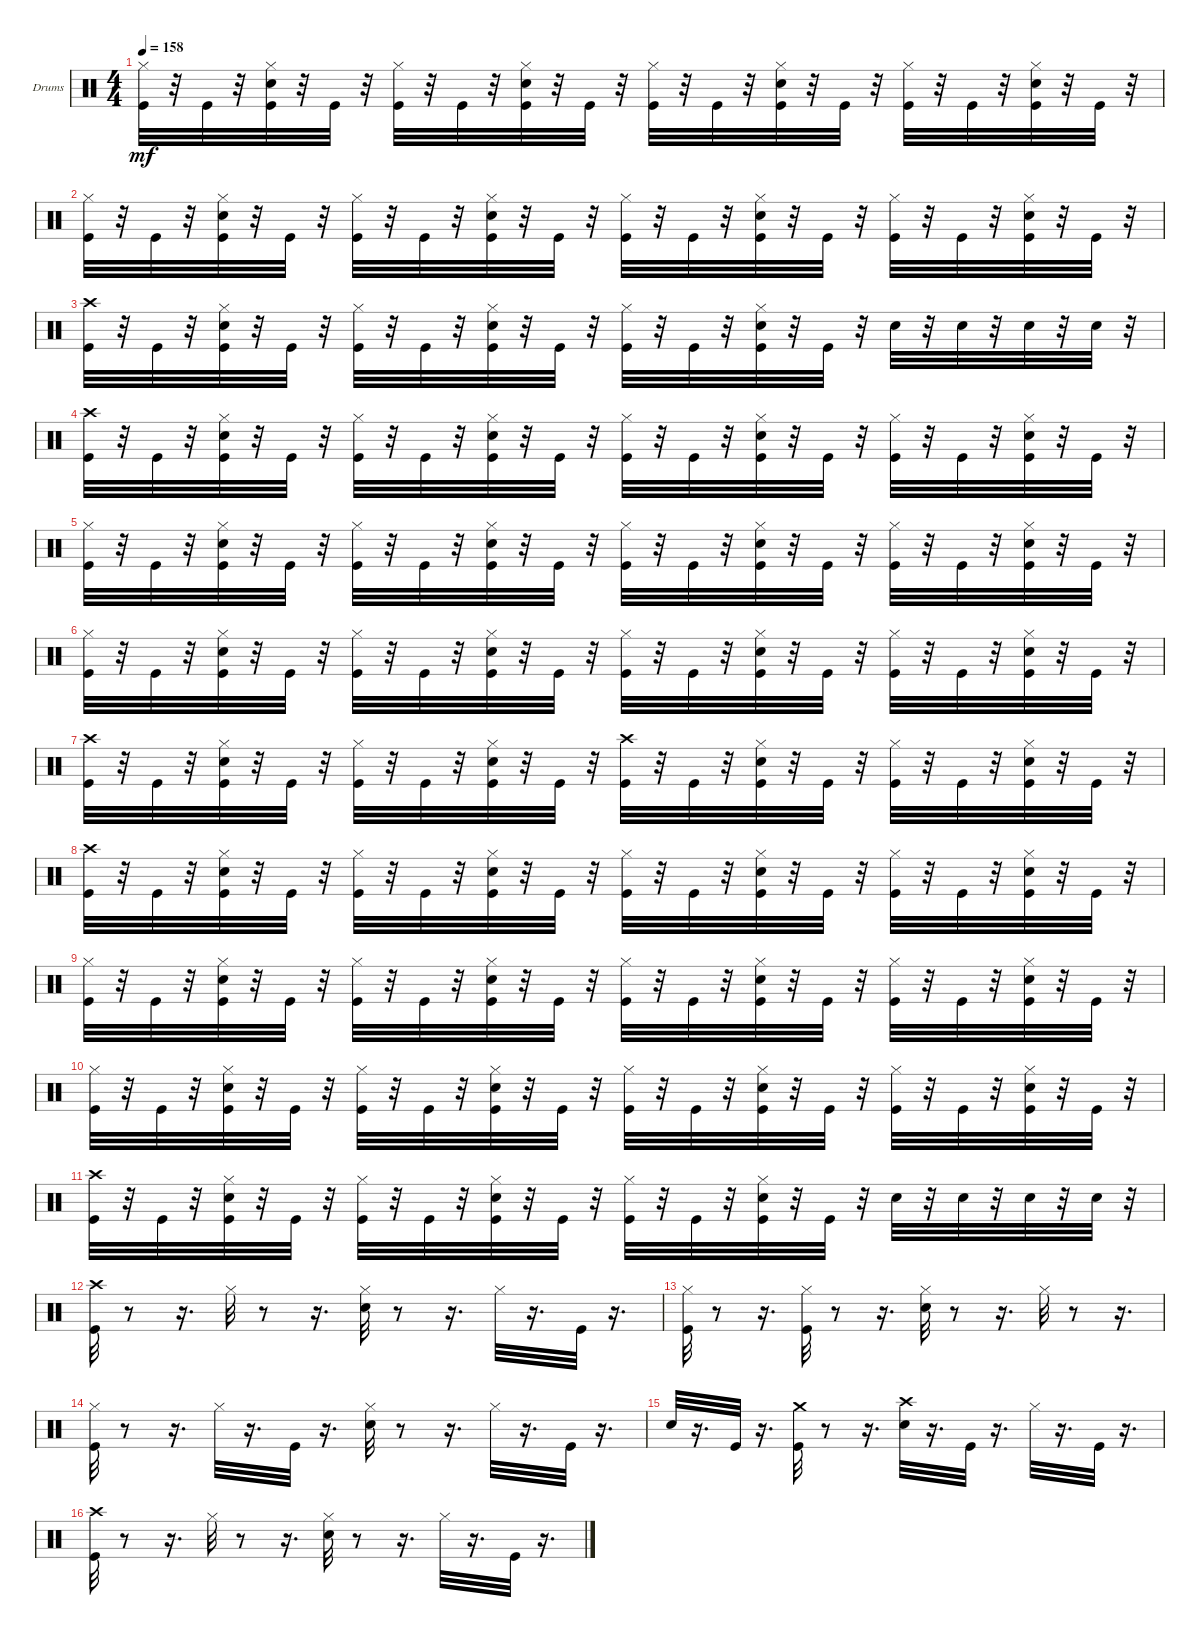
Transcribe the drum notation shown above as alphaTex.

\bracketExtendMode groupsimilarinstruments
\firstSystemTrackNameOrientation horizontal
\otherSystemsTrackNameOrientation horizontal
\track ("" "Drums") {instrument percussion}
\staff {score}
\articulation defaults
\ts (4 4)
\tempo 158
\clef neutral
\ks c
("Hi-Hat (closed)" "Kick (hit)").32{dy mf} r.32 "Kick (hit)".32 r.32 ("Kick (hit)" "Snare (hit) 2" "Hi-Hat (closed)").32 r.32 "Kick (hit)".32 r.32 ("Kick (hit)" "Hi-Hat (closed)").32 r.32 "Kick (hit)".32 r.32 ("Kick (hit)" "Snare (hit) 2" "Hi-Hat (closed)").32 r.32 "Kick (hit)".32 r.32 ("Kick (hit)" "Hi-Hat (closed)").32 r.32 "Kick (hit)".32 r.32 ("Kick (hit)" "Snare (hit) 2" "Hi-Hat (closed)").32 r.32 "Kick (hit)".32 r.32 ("Kick (hit)" "Hi-Hat (closed)").32 r.32 "Kick (hit)".32 r.32 ("Kick (hit)" "Snare (hit) 2" "Hi-Hat (closed)").32 r.32 "Kick (hit)".32 r.32 |
("Hi-Hat (closed)" "Kick (hit)").32 r.32 "Kick (hit)".32 r.32 ("Kick (hit)" "Snare (hit) 2" "Hi-Hat (closed)").32 r.32 "Kick (hit)".32 r.32 ("Kick (hit)" "Hi-Hat (closed)").32 r.32 "Kick (hit)".32 r.32 ("Kick (hit)" "Snare (hit) 2" "Hi-Hat (closed)").32 r.32 "Kick (hit)".32 r.32 ("Kick (hit)" "Hi-Hat (closed)").32 r.32 "Kick (hit)".32 r.32 ("Kick (hit)" "Snare (hit) 2" "Hi-Hat (closed)").32 r.32 "Kick (hit)".32 r.32 ("Kick (hit)" "Hi-Hat (closed)").32 r.32 "Kick (hit)".32 r.32 ("Kick (hit)" "Snare (hit) 2" "Hi-Hat (closed)").32 r.32 "Kick (hit)".32 r.32 |
("Crash high (hit)" "Kick (hit)").32 r.32 "Kick (hit)".32 r.32 ("Kick (hit)" "Snare (hit) 2" "Hi-Hat (closed)").32 r.32 "Kick (hit)".32 r.32 ("Kick (hit)" "Hi-Hat (closed)").32 r.32 "Kick (hit)".32 r.32 ("Kick (hit)" "Snare (hit) 2" "Hi-Hat (closed)").32 r.32 "Kick (hit)".32 r.32 ("Hi-Hat (closed)" "Kick (hit)").32 r.32 "Kick (hit)".32 r.32 ("Kick (hit)" "Snare (hit) 2" "Hi-Hat (closed)").32 r.32 "Kick (hit)".32 r.32 "Snare (hit) 2".32 r.32 "Snare (hit) 2".32 r.32 "Snare (hit) 2".32 r.32 "Snare (hit) 2".32 r.32 |
("Crash high (hit)" "Kick (hit)").32 r.32 "Kick (hit)".32 r.32 ("Kick (hit)" "Snare (hit) 2" "Hi-Hat (closed)").32 r.32 "Kick (hit)".32 r.32 ("Kick (hit)" "Hi-Hat (closed)").32 r.32 "Kick (hit)".32 r.32 ("Kick (hit)" "Snare (hit) 2" "Hi-Hat (closed)").32 r.32 "Kick (hit)".32 r.32 ("Kick (hit)" "Hi-Hat (closed)").32 r.32 "Kick (hit)".32 r.32 ("Kick (hit)" "Snare (hit) 2" "Hi-Hat (closed)").32 r.32 "Kick (hit)".32 r.32 ("Kick (hit)" "Hi-Hat (closed)").32 r.32 "Kick (hit)".32 r.32 ("Kick (hit)" "Snare (hit) 2" "Hi-Hat (closed)").32 r.32 "Kick (hit)".32 r.32 |
("Hi-Hat (closed)" "Kick (hit)").32 r.32 "Kick (hit)".32 r.32 ("Kick (hit)" "Snare (hit) 2" "Hi-Hat (closed)").32 r.32 "Kick (hit)".32 r.32 ("Kick (hit)" "Hi-Hat (closed)").32 r.32 "Kick (hit)".32 r.32 ("Kick (hit)" "Snare (hit) 2" "Hi-Hat (closed)").32 r.32 "Kick (hit)".32 r.32 ("Kick (hit)" "Hi-Hat (closed)").32 r.32 "Kick (hit)".32 r.32 ("Kick (hit)" "Snare (hit) 2" "Hi-Hat (closed)").32 r.32 "Kick (hit)".32 r.32 ("Kick (hit)" "Hi-Hat (closed)").32 r.32 "Kick (hit)".32 r.32 ("Kick (hit)" "Snare (hit) 2" "Hi-Hat (closed)").32 r.32 "Kick (hit)".32 r.32 |
("Hi-Hat (closed)" "Kick (hit)").32 r.32 "Kick (hit)".32 r.32 ("Kick (hit)" "Snare (hit) 2" "Hi-Hat (closed)").32 r.32 "Kick (hit)".32 r.32 ("Kick (hit)" "Hi-Hat (closed)").32 r.32 "Kick (hit)".32 r.32 ("Kick (hit)" "Snare (hit) 2" "Hi-Hat (closed)").32 r.32 "Kick (hit)".32 r.32 ("Kick (hit)" "Hi-Hat (closed)").32 r.32 "Kick (hit)".32 r.32 ("Kick (hit)" "Snare (hit) 2" "Hi-Hat (closed)").32 r.32 "Kick (hit)".32 r.32 ("Kick (hit)" "Hi-Hat (closed)").32 r.32 "Kick (hit)".32 r.32 ("Kick (hit)" "Snare (hit) 2" "Hi-Hat (closed)").32 r.32 "Kick (hit)".32 r.32 |
("Crash high (hit)" "Kick (hit)").32 r.32 "Kick (hit)".32 r.32 ("Kick (hit)" "Snare (hit) 2" "Hi-Hat (closed)").32 r.32 "Kick (hit)".32 r.32 ("Kick (hit)" "Hi-Hat (closed)").32 r.32 "Kick (hit)".32 r.32 ("Kick (hit)" "Snare (hit) 2" "Hi-Hat (closed)").32 r.32 "Kick (hit)".32 r.32 ("Crash high (hit)" "Kick (hit)").32 r.32 "Kick (hit)".32 r.32 ("Kick (hit)" "Snare (hit) 2" "Hi-Hat (closed)").32 r.32 "Kick (hit)".32 r.32 ("Kick (hit)" "Hi-Hat (closed)").32 r.32 "Kick (hit)".32 r.32 ("Kick (hit)" "Snare (hit) 2" "Hi-Hat (closed)").32 r.32 "Kick (hit)".32 r.32 |
("Crash high (hit)" "Kick (hit)").32 r.32 "Kick (hit)".32 r.32 ("Kick (hit)" "Snare (hit) 2" "Hi-Hat (closed)").32 r.32 "Kick (hit)".32 r.32 ("Kick (hit)" "Hi-Hat (closed)").32 r.32 "Kick (hit)".32 r.32 ("Kick (hit)" "Snare (hit) 2" "Hi-Hat (closed)").32 r.32 "Kick (hit)".32 r.32 ("Kick (hit)" "Hi-Hat (closed)").32 r.32 "Kick (hit)".32 r.32 ("Kick (hit)" "Snare (hit) 2" "Hi-Hat (closed)").32 r.32 "Kick (hit)".32 r.32 ("Kick (hit)" "Hi-Hat (closed)").32 r.32 "Kick (hit)".32 r.32 ("Kick (hit)" "Snare (hit) 2" "Hi-Hat (closed)").32 r.32 "Kick (hit)".32 r.32 |
("Hi-Hat (closed)" "Kick (hit)").32 r.32 "Kick (hit)".32 r.32 ("Kick (hit)" "Snare (hit) 2" "Hi-Hat (closed)").32 r.32 "Kick (hit)".32 r.32 ("Kick (hit)" "Hi-Hat (closed)").32 r.32 "Kick (hit)".32 r.32 ("Kick (hit)" "Snare (hit) 2" "Hi-Hat (closed)").32 r.32 "Kick (hit)".32 r.32 ("Kick (hit)" "Hi-Hat (closed)").32 r.32 "Kick (hit)".32 r.32 ("Kick (hit)" "Snare (hit) 2" "Hi-Hat (closed)").32 r.32 "Kick (hit)".32 r.32 ("Kick (hit)" "Hi-Hat (closed)").32 r.32 "Kick (hit)".32 r.32 ("Kick (hit)" "Snare (hit) 2" "Hi-Hat (closed)").32 r.32 "Kick (hit)".32 r.32 |
("Hi-Hat (closed)" "Kick (hit)").32 r.32 "Kick (hit)".32 r.32 ("Kick (hit)" "Snare (hit) 2" "Hi-Hat (closed)").32 r.32 "Kick (hit)".32 r.32 ("Kick (hit)" "Hi-Hat (closed)").32 r.32 "Kick (hit)".32 r.32 ("Kick (hit)" "Snare (hit) 2" "Hi-Hat (closed)").32 r.32 "Kick (hit)".32 r.32 ("Kick (hit)" "Hi-Hat (closed)").32 r.32 "Kick (hit)".32 r.32 ("Kick (hit)" "Snare (hit) 2" "Hi-Hat (closed)").32 r.32 "Kick (hit)".32 r.32 ("Kick (hit)" "Hi-Hat (closed)").32 r.32 "Kick (hit)".32 r.32 ("Kick (hit)" "Snare (hit) 2" "Hi-Hat (closed)").32 r.32 "Kick (hit)".32 r.32 |
("Crash high (hit)" "Kick (hit)").32 r.32 "Kick (hit)".32 r.32 ("Kick (hit)" "Snare (hit) 2" "Hi-Hat (closed)").32 r.32 "Kick (hit)".32 r.32 ("Kick (hit)" "Hi-Hat (closed)").32 r.32 "Kick (hit)".32 r.32 ("Kick (hit)" "Snare (hit) 2" "Hi-Hat (closed)").32 r.32 "Kick (hit)".32 r.32 ("Hi-Hat (closed)" "Kick (hit)").32 r.32 "Kick (hit)".32 r.32 ("Kick (hit)" "Snare (hit) 2" "Hi-Hat (closed)").32 r.32 "Kick (hit)".32 r.32 "Snare (hit) 2".32 r.32 "Snare (hit) 2".32 r.32 "Snare (hit) 2".32 r.32 "Snare (hit) 2".32 r.32 |
("Crash high (hit)" "Kick (hit)").32 r.8 r.16{d} "Hi-Hat (closed)".32 r.8 r.16{d} ("Snare (hit) 2" "Hi-Hat (closed)").32 r.8 r.16{d} "Hi-Hat (closed)".32 r.16{d} "Kick (hit)".32 r.16{d} |
("Hi-Hat (closed)" "Kick (hit)").32 r.8 r.16{d} ("Hi-Hat (closed)" "Kick (hit)").32 r.8 r.16{d} ("Hi-Hat (closed)" "Snare (hit) 2").32 r.8 r.16{d} "Hi-Hat (closed)".32 r.8 r.16{d} |
("Hi-Hat (closed)" "Kick (hit)").32 r.8 r.16{d} "Hi-Hat (closed)".32 r.16{d} "Kick (hit)".32 r.16{d} ("Hi-Hat (closed)" "Snare (hit) 2").32 r.8 r.16{d} "Hi-Hat (closed)".32 r.16{d} "Kick (hit)".32 r.16{d} |
"Snare (hit) 2".32 r.16{d} "Kick (hit)".32 r.16{d} ("Crash medium (hit)" "Kick (hit)").32 r.8 r.16{d} ("Snare (hit) 2" "Crash high (hit)").32 r.16{d} "Kick (hit)".32 r.16{d} "Hi-Hat (closed)".32 r.16{d} "Kick (hit)".32 r.16{d} |
("Crash high (hit)" "Kick (hit)").32 r.8 r.16{d} "Hi-Hat (closed)".32 r.8 r.16{d} ("Snare (hit) 2" "Hi-Hat (closed)").32 r.8 r.16{d} "Hi-Hat (closed)".32 r.16{d} "Kick (hit)".32 r.16{d}
